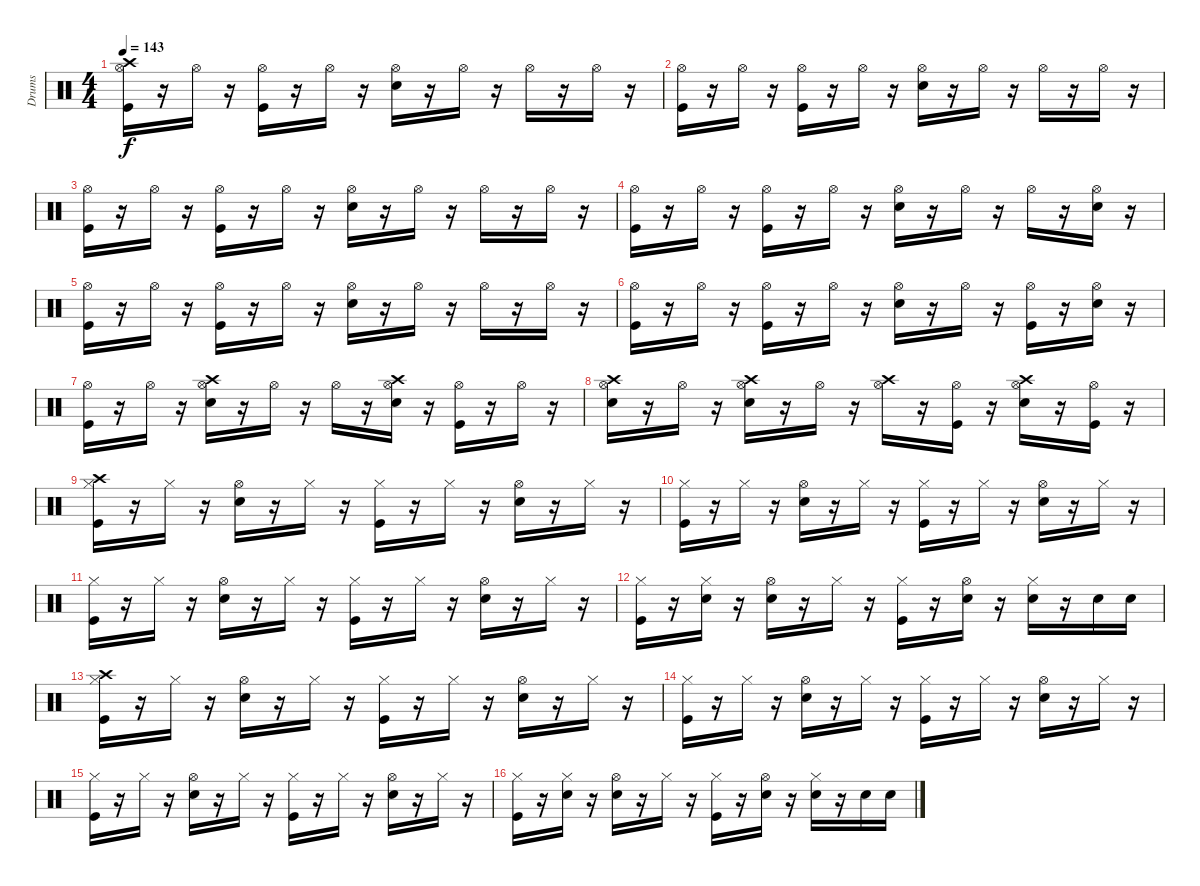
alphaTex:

\track ("Drums" "Drums") {instrument percussion}
\staff {score}
\articulation defaults
\ts (4 4)
\tempo 143
\clef neutral
\ks c
("Kick (hit)" "Hi-Hat (open)" "Crash high (hit)").16{dy f} r.16 "Hi-Hat (open)".16 r.16 ("Kick (hit)" "Hi-Hat (open)").16 r.16 "Hi-Hat (open)".16 r.16 ("Hi-Hat (open)" "Snare (hit) 2").16 r.16 "Hi-Hat (open)".16 r.16 "Hi-Hat (open)".16 r.16 "Hi-Hat (open)".16 r.16 |
("Kick (hit)" "Hi-Hat (open)").16 r.16 "Hi-Hat (open)".16 r.16 ("Kick (hit)" "Hi-Hat (open)").16 r.16 "Hi-Hat (open)".16 r.16 ("Hi-Hat (open)" "Snare (hit) 2").16 r.16 "Hi-Hat (open)".16 r.16 "Hi-Hat (open)".16 r.16 "Hi-Hat (open)".16 r.16 |
("Kick (hit)" "Hi-Hat (open)").16 r.16 "Hi-Hat (open)".16 r.16 ("Kick (hit)" "Hi-Hat (open)").16 r.16 "Hi-Hat (open)".16 r.16 ("Hi-Hat (open)" "Snare (hit) 2").16 r.16 "Hi-Hat (open)".16 r.16 "Hi-Hat (open)".16 r.16 "Hi-Hat (open)".16 r.16 |
("Kick (hit)" "Hi-Hat (open)").16 r.16 "Hi-Hat (open)".16 r.16 ("Kick (hit)" "Hi-Hat (open)").16 r.16 "Hi-Hat (open)".16 r.16 ("Hi-Hat (open)" "Snare (hit) 2").16 r.16 "Hi-Hat (open)".16 r.16 "Hi-Hat (open)".16 r.16 ("Hi-Hat (open)" "Snare (hit) 2").16 r.16 |
("Kick (hit)" "Hi-Hat (open)").16 r.16 "Hi-Hat (open)".16 r.16 ("Kick (hit)" "Hi-Hat (open)").16 r.16 "Hi-Hat (open)".16 r.16 ("Hi-Hat (open)" "Snare (hit) 2").16 r.16 "Hi-Hat (open)".16 r.16 "Hi-Hat (open)".16 r.16 "Hi-Hat (open)".16 r.16 |
("Kick (hit)" "Hi-Hat (open)").16 r.16 "Hi-Hat (open)".16 r.16 ("Kick (hit)" "Hi-Hat (open)").16 r.16 "Hi-Hat (open)".16 r.16 ("Hi-Hat (open)" "Snare (hit) 2").16 r.16 "Hi-Hat (open)".16 r.16 ("Kick (hit)" "Hi-Hat (open)").16 r.16 ("Hi-Hat (open)" "Snare (hit) 2").16 r.16 |
("Kick (hit)" "Hi-Hat (open)").16 r.16 "Hi-Hat (open)".16 r.16 ("Hi-Hat (open)" "Snare (hit) 2" "Crash high (hit)").16 r.16 "Hi-Hat (open)".16 r.16 "Hi-Hat (open)".16 r.16 ("Hi-Hat (open)" "Snare (hit) 2" "Crash high (hit)").16 r.16 ("Kick (hit)" "Hi-Hat (open)").16 r.16 "Hi-Hat (open)".16 r.16 |
("Hi-Hat (open)" "Snare (hit) 2" "Crash high (hit)").16 r.16 "Hi-Hat (open)".16 r.16 ("Hi-Hat (open)" "Snare (hit) 2" "Crash high (hit)").16 r.16 "Hi-Hat (open)".16 r.16 ("Hi-Hat (open)" "Crash high (hit)").16 r.16 ("Kick (hit)" "Hi-Hat (open)").16 r.16 ("Hi-Hat (open)" "Snare (hit) 2" "Crash high (hit)").16 r.16 ("Kick (hit)" "Hi-Hat (open)").16 r.16 |
("Hi-Hat (closed)" "Kick (hit)" "Crash high (hit)").16 r.16 "Hi-Hat (closed)".16 r.16 ("Hi-Hat (open)" "Snare (hit) 2").16 r.16 "Hi-Hat (closed)".16 r.16 ("Hi-Hat (closed)" "Kick (hit)").16 r.16 "Hi-Hat (closed)".16 r.16 ("Hi-Hat (open)" "Snare (hit) 2").16 r.16 "Hi-Hat (closed)".16 r.16 |
("Hi-Hat (closed)" "Kick (hit)").16 r.16 "Hi-Hat (closed)".16 r.16 ("Hi-Hat (open)" "Snare (hit) 2").16 r.16 "Hi-Hat (closed)".16 r.16 ("Hi-Hat (closed)" "Kick (hit)").16 r.16 "Hi-Hat (closed)".16 r.16 ("Hi-Hat (open)" "Snare (hit) 2").16 r.16 "Hi-Hat (closed)".16 r.16 |
("Hi-Hat (closed)" "Kick (hit)").16 r.16 "Hi-Hat (closed)".16 r.16 ("Hi-Hat (open)" "Snare (hit) 2").16 r.16 "Hi-Hat (closed)".16 r.16 ("Hi-Hat (closed)" "Kick (hit)").16 r.16 "Hi-Hat (closed)".16 r.16 ("Hi-Hat (open)" "Snare (hit) 2").16 r.16 "Hi-Hat (closed)".16 r.16 |
("Hi-Hat (closed)" "Kick (hit)").16 r.16 ("Hi-Hat (closed)" "Snare (hit) 2").16 r.16 ("Hi-Hat (open)" "Snare (hit) 2").16 r.16 "Hi-Hat (closed)".16 r.16 ("Hi-Hat (closed)" "Kick (hit)").16 r.16 ("Hi-Hat (open)" "Snare (hit) 2").16 r.16 ("Hi-Hat (closed)" "Snare (hit) 2").16 r.16 "Snare (hit) 2".16 "Snare (hit) 2".16 |
("Hi-Hat (closed)" "Kick (hit)" "Crash high (hit)").16 r.16 "Hi-Hat (closed)".16 r.16 ("Hi-Hat (open)" "Snare (hit) 2").16 r.16 "Hi-Hat (closed)".16 r.16 ("Hi-Hat (closed)" "Kick (hit)").16 r.16 "Hi-Hat (closed)".16 r.16 ("Hi-Hat (open)" "Snare (hit) 2").16 r.16 "Hi-Hat (closed)".16 r.16 |
("Hi-Hat (closed)" "Kick (hit)").16 r.16 "Hi-Hat (closed)".16 r.16 ("Hi-Hat (open)" "Snare (hit) 2").16 r.16 "Hi-Hat (closed)".16 r.16 ("Hi-Hat (closed)" "Kick (hit)").16 r.16 "Hi-Hat (closed)".16 r.16 ("Hi-Hat (open)" "Snare (hit) 2").16 r.16 "Hi-Hat (closed)".16 r.16 |
("Hi-Hat (closed)" "Kick (hit)").16 r.16 "Hi-Hat (closed)".16 r.16 ("Hi-Hat (open)" "Snare (hit) 2").16 r.16 "Hi-Hat (closed)".16 r.16 ("Hi-Hat (closed)" "Kick (hit)").16 r.16 "Hi-Hat (closed)".16 r.16 ("Hi-Hat (open)" "Snare (hit) 2").16 r.16 "Hi-Hat (closed)".16 r.16 |
("Hi-Hat (closed)" "Kick (hit)").16 r.16 ("Hi-Hat (closed)" "Snare (hit) 2").16 r.16 ("Hi-Hat (open)" "Snare (hit) 2").16 r.16 "Hi-Hat (closed)".16 r.16 ("Hi-Hat (closed)" "Kick (hit)").16 r.16 ("Hi-Hat (open)" "Snare (hit) 2").16 r.16 ("Hi-Hat (closed)" "Snare (hit) 2").16 r.16 "Snare (hit) 2".16 "Snare (hit) 2".16
